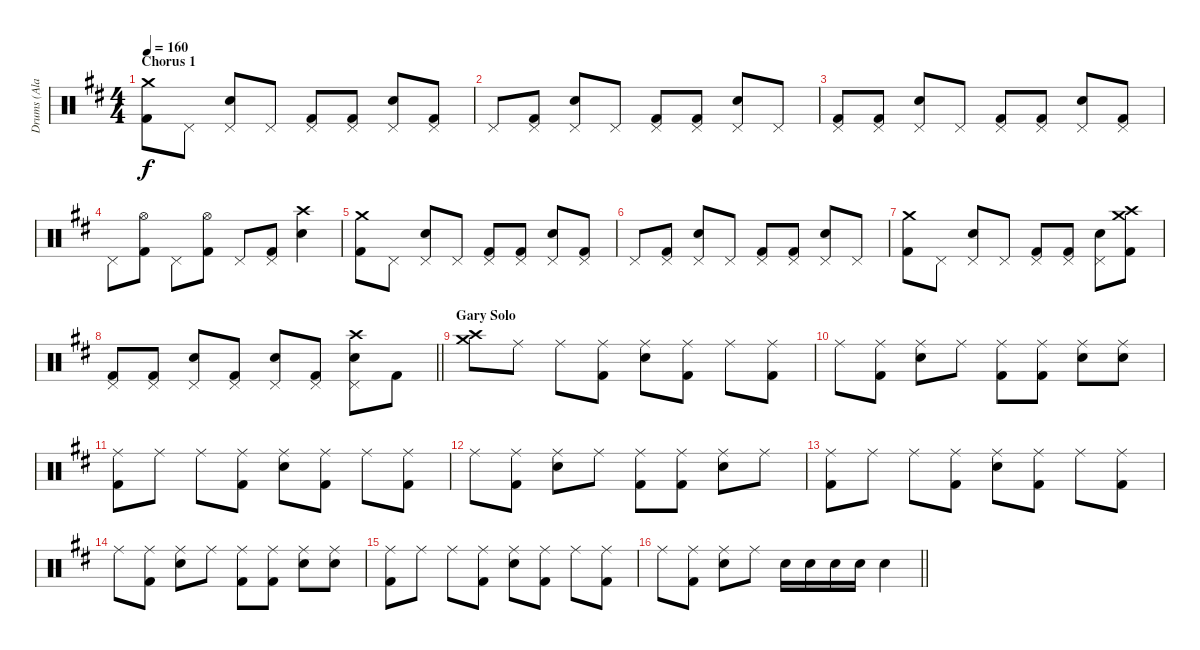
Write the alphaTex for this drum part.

\track ("Drums (Ala Burns)" "Drums (Ala") {instrument percussion}
\staff {score}
\articulation defaults
\ts (4 4)
\section ("" "Chorus 1")
\tempo 160
\clef neutral
\ks d
("Crash medium (hit)" "Kick (hit) 2").8{dy f} "Pedal Hi-Hat (hit)".8 ("Pedal Hi-Hat (hit)" "Snare (hit) 2").8 "Pedal Hi-Hat (hit)".8 ("Pedal Hi-Hat (hit)" "Kick (hit) 2").8 ("Pedal Hi-Hat (hit)" "Kick (hit) 2").8 ("Pedal Hi-Hat (hit)" "Snare (hit) 2").8 ("Pedal Hi-Hat (hit)" "Kick (hit) 2").8 |
"Pedal Hi-Hat (hit)".8 ("Pedal Hi-Hat (hit)" "Kick (hit) 2").8 ("Pedal Hi-Hat (hit)" "Snare (hit) 2").8 "Pedal Hi-Hat (hit)".8 ("Pedal Hi-Hat (hit)" "Kick (hit) 2").8 ("Pedal Hi-Hat (hit)" "Kick (hit) 2").8 ("Pedal Hi-Hat (hit)" "Snare (hit) 2").8 "Pedal Hi-Hat (hit)".8 |
("Pedal Hi-Hat (hit)" "Kick (hit) 2").8 ("Pedal Hi-Hat (hit)" "Kick (hit) 2").8 ("Pedal Hi-Hat (hit)" "Snare (hit) 2").8 "Pedal Hi-Hat (hit)".8 ("Pedal Hi-Hat (hit)" "Kick (hit) 2").8 ("Pedal Hi-Hat (hit)" "Kick (hit) 2").8 ("Pedal Hi-Hat (hit)" "Snare (hit) 2").8 ("Pedal Hi-Hat (hit)" "Kick (hit) 2").8 |
"Pedal Hi-Hat (hit)".8 ("Hi-Hat (open)" "Kick (hit) 2").8 "Pedal Hi-Hat (hit)".8 ("Hi-Hat (open)" "Kick (hit) 2").8 "Pedal Hi-Hat (hit)".8 ("Pedal Hi-Hat (hit)" "Kick (hit) 2").8 ("Crash high (hit)" "Snare (hit) 2").4 |
("Crash medium (hit)" "Kick (hit) 2").8 "Pedal Hi-Hat (hit)".8 ("Pedal Hi-Hat (hit)" "Snare (hit) 2").8 "Pedal Hi-Hat (hit)".8 ("Pedal Hi-Hat (hit)" "Kick (hit) 2").8 ("Pedal Hi-Hat (hit)" "Kick (hit) 2").8 ("Pedal Hi-Hat (hit)" "Snare (hit) 2").8 ("Pedal Hi-Hat (hit)" "Kick (hit) 2").8 |
"Pedal Hi-Hat (hit)".8 ("Pedal Hi-Hat (hit)" "Kick (hit) 2").8 ("Pedal Hi-Hat (hit)" "Snare (hit) 2").8 "Pedal Hi-Hat (hit)".8 ("Pedal Hi-Hat (hit)" "Kick (hit) 2").8 ("Pedal Hi-Hat (hit)" "Kick (hit) 2").8 ("Pedal Hi-Hat (hit)" "Snare (hit) 2").8 "Pedal Hi-Hat (hit)".8 |
("Crash medium (hit)" "Kick (hit) 2").8 "Pedal Hi-Hat (hit)".8 ("Pedal Hi-Hat (hit)" "Snare (hit) 2").8 "Pedal Hi-Hat (hit)".8 ("Pedal Hi-Hat (hit)" "Kick (hit) 2").8 ("Pedal Hi-Hat (hit)" "Kick (hit) 2").8 ("Pedal Hi-Hat (hit)" "Snare (hit) 2").8 ("Crash medium (hit)" "Crash high (hit)" "Kick (hit) 2").8 |
\barLineRight lightlight
("Pedal Hi-Hat (hit)" "Kick (hit) 2").8 ("Pedal Hi-Hat (hit)" "Kick (hit) 2").8 ("Pedal Hi-Hat (hit)" "Snare (hit) 2").8 ("Pedal Hi-Hat (hit)" "Kick (hit) 2").8 ("Pedal Hi-Hat (hit)" "Snare (hit) 2").8 ("Pedal Hi-Hat (hit)" "Kick (hit) 2").8 ("Crash high (hit)" "Pedal Hi-Hat (hit)" "Snare (hit) 2").8 "Kick (hit) 2".8 |
\section ("" "Gary Solo")
("Crash medium (hit)" "Crash high (hit)").8 "Ride (middle)".8 "Ride (middle)".8 ("Ride (middle)" "Kick (hit) 2").8 ("Ride (middle)" "Snare (hit) 2").8 ("Ride (middle)" "Kick (hit) 2").8 "Ride (middle)".8 ("Ride (middle)" "Kick (hit) 2").8 |
"Ride (middle)".8 ("Ride (middle)" "Kick (hit) 2").8 ("Ride (middle)" "Snare (hit) 2").8 "Ride (middle)".8 ("Ride (middle)" "Kick (hit) 2").8 ("Ride (middle)" "Kick (hit) 2").8 ("Ride (middle)" "Snare (hit) 2").8 ("Ride (middle)" "Snare (hit) 2").8 |
("Ride (middle)" "Kick (hit) 2").8 "Ride (middle)".8 "Ride (middle)".8 ("Ride (middle)" "Kick (hit) 2").8 ("Ride (middle)" "Snare (hit) 2").8 ("Ride (middle)" "Kick (hit) 2").8 "Ride (middle)".8 ("Ride (middle)" "Kick (hit) 2").8 |
"Ride (middle)".8 ("Ride (middle)" "Kick (hit) 2").8 ("Ride (middle)" "Snare (hit) 2").8 "Ride (middle)".8 ("Ride (middle)" "Kick (hit) 2").8 ("Ride (middle)" "Kick (hit) 2").8 ("Ride (middle)" "Snare (hit) 2").8 "Ride (middle)".8 |
("Ride (middle)" "Kick (hit) 2").8 "Ride (middle)".8 "Ride (middle)".8 ("Ride (middle)" "Kick (hit) 2").8 ("Ride (middle)" "Snare (hit) 2").8 ("Ride (middle)" "Kick (hit) 2").8 "Ride (middle)".8 ("Ride (middle)" "Kick (hit) 2").8 |
"Ride (middle)".8 ("Ride (middle)" "Kick (hit) 2").8 ("Ride (middle)" "Snare (hit) 2").8 "Ride (middle)".8 ("Ride (middle)" "Kick (hit) 2").8 ("Ride (middle)" "Kick (hit) 2").8 ("Ride (middle)" "Snare (hit) 2").8 ("Ride (middle)" "Snare (hit) 2").8 |
("Ride (middle)" "Kick (hit) 2").8 "Ride (middle)".8 "Ride (middle)".8 ("Ride (middle)" "Kick (hit) 2").8 ("Ride (middle)" "Snare (hit) 2").8 ("Ride (middle)" "Kick (hit) 2").8 "Ride (middle)".8 ("Ride (middle)" "Kick (hit) 2").8 |
\barLineRight lightlight "Ride (middle)".8
("Ride (middle)" "Kick (hit) 2").8 ("Ride (middle)" "Snare (hit) 2").8 "Ride (middle)".8 "Snare (hit) 2".16 "Snare (hit) 2".16 "Snare (hit) 2".16 "Snare (hit) 2".16 "Snare (hit) 2".4
